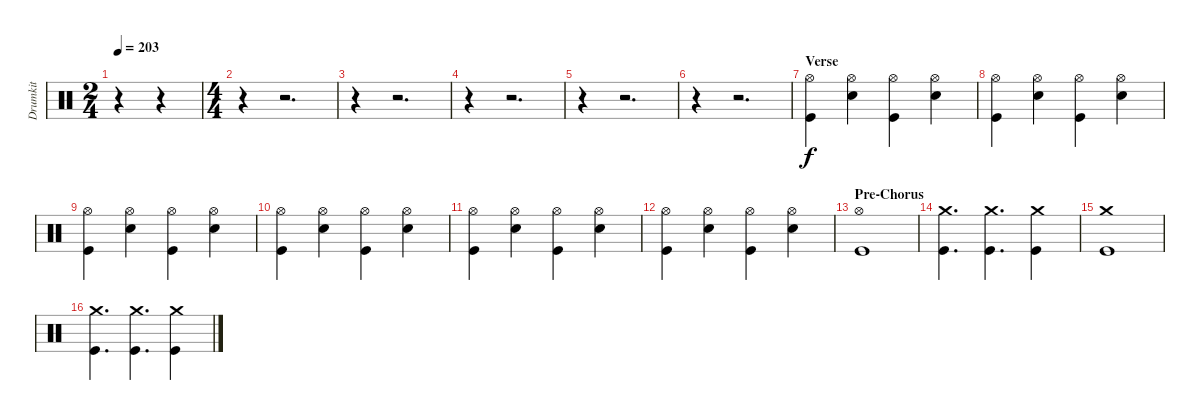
\track ("Drumkit" "Drumkit") {instrument percussion}
\staff {score}
\articulation defaults
\ts (2 4)
\tempo 203
\clef neutral
\ks c
r.4{dy f} r.4 |
\ts (4 4)
r.4 r.2{d} |
r.4 r.2{d} |
r.4 r.2{d} |
r.4 r.2{d} |
r.4 r.2{d} |
\section ("" "Verse")
("Kick (hit)" "Hi-Hat (open)").4 ("Snare (hit) 2" "Hi-Hat (open)").4 ("Kick (hit)" "Hi-Hat (open)").4 ("Snare (hit) 2" "Hi-Hat (open)").4 |
("Kick (hit)" "Hi-Hat (open)").4 ("Snare (hit) 2" "Hi-Hat (open)").4 ("Kick (hit)" "Hi-Hat (open)").4 ("Snare (hit) 2" "Hi-Hat (open)").4 |
("Kick (hit)" "Hi-Hat (open)").4 ("Snare (hit) 2" "Hi-Hat (open)").4 ("Kick (hit)" "Hi-Hat (open)").4 ("Snare (hit) 2" "Hi-Hat (open)").4 |
("Kick (hit)" "Hi-Hat (open)").4 ("Snare (hit) 2" "Hi-Hat (open)").4 ("Kick (hit)" "Hi-Hat (open)").4 ("Snare (hit) 2" "Hi-Hat (open)").4 |
("Kick (hit)" "Hi-Hat (open)").4 ("Snare (hit) 2" "Hi-Hat (open)").4 ("Kick (hit)" "Hi-Hat (open)").4 ("Snare (hit) 2" "Hi-Hat (open)").4 |
("Kick (hit)" "Hi-Hat (open)").4 ("Snare (hit) 2" "Hi-Hat (open)").4 ("Kick (hit)" "Hi-Hat (open)").4 ("Snare (hit) 2" "Hi-Hat (open)").4 |
\section ("" "Pre-Chorus")
("Kick (hit)" "Hi-Hat (open)").1 |
("Kick (hit)" "Crash medium (hit)").4{d} ("Kick (hit)" "Crash medium (hit)").4{d} ("Kick (hit)" "Crash medium (hit)").4 |
("Kick (hit)" "Crash medium (hit)").1 |
("Kick (hit)" "Crash medium (hit)").4{d} ("Kick (hit)" "Crash medium (hit)").4{d} ("Kick (hit)" "Crash medium (hit)").4
